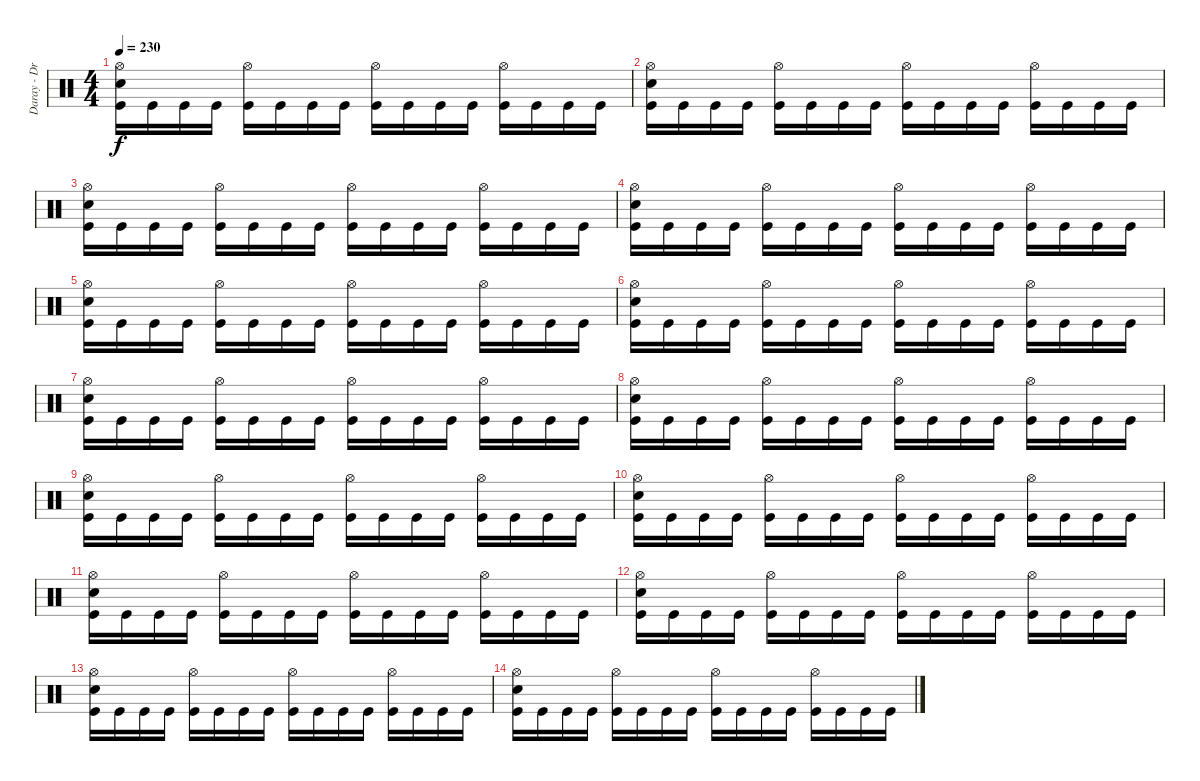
\track ("Daray - Drums" "Daray - Dr") {instrument percussion}
\staff {score}
\articulation defaults
\ts (4 4)
\tempo 230
\clef neutral
\ks c
("Hi-Hat (open)" "Electric Snare (hit)" "Kick (hit)").16{dy f} "Kick (hit)".16 "Kick (hit)".16 "Kick (hit)".16 ("Hi-Hat (open)" "Kick (hit)").16 "Kick (hit)".16 "Kick (hit)".16 "Kick (hit)".16 ("Hi-Hat (open)" "Kick (hit)").16 "Kick (hit)".16 "Kick (hit)".16 "Kick (hit)".16 ("Hi-Hat (open)" "Kick (hit)").16 "Kick (hit)".16 "Kick (hit)".16 "Kick (hit)".16 |
("Hi-Hat (open)" "Electric Snare (hit)" "Kick (hit)").16 "Kick (hit)".16 "Kick (hit)".16 "Kick (hit)".16 ("Hi-Hat (open)" "Kick (hit)").16 "Kick (hit)".16 "Kick (hit)".16 "Kick (hit)".16 ("Hi-Hat (open)" "Kick (hit)").16 "Kick (hit)".16 "Kick (hit)".16 "Kick (hit)".16 ("Hi-Hat (open)" "Kick (hit)").16 "Kick (hit)".16 "Kick (hit)".16 "Kick (hit)".16 |
("Hi-Hat (open)" "Electric Snare (hit)" "Kick (hit)").16 "Kick (hit)".16 "Kick (hit)".16 "Kick (hit)".16 ("Hi-Hat (open)" "Kick (hit)").16 "Kick (hit)".16 "Kick (hit)".16 "Kick (hit)".16 ("Hi-Hat (open)" "Kick (hit)").16 "Kick (hit)".16 "Kick (hit)".16 "Kick (hit)".16 ("Hi-Hat (open)" "Kick (hit)").16 "Kick (hit)".16 "Kick (hit)".16 "Kick (hit)".16 |
("Hi-Hat (open)" "Electric Snare (hit)" "Kick (hit)").16 "Kick (hit)".16 "Kick (hit)".16 "Kick (hit)".16 ("Hi-Hat (open)" "Kick (hit)").16 "Kick (hit)".16 "Kick (hit)".16 "Kick (hit)".16 ("Hi-Hat (open)" "Kick (hit)").16 "Kick (hit)".16 "Kick (hit)".16 "Kick (hit)".16 ("Hi-Hat (open)" "Kick (hit)").16 "Kick (hit)".16 "Kick (hit)".16 "Kick (hit)".16 |
("Hi-Hat (open)" "Electric Snare (hit)" "Kick (hit)").16 "Kick (hit)".16 "Kick (hit)".16 "Kick (hit)".16 ("Hi-Hat (open)" "Kick (hit)").16 "Kick (hit)".16 "Kick (hit)".16 "Kick (hit)".16 ("Hi-Hat (open)" "Kick (hit)").16 "Kick (hit)".16 "Kick (hit)".16 "Kick (hit)".16 ("Hi-Hat (open)" "Kick (hit)").16 "Kick (hit)".16 "Kick (hit)".16 "Kick (hit)".16 |
("Hi-Hat (open)" "Electric Snare (hit)" "Kick (hit)").16 "Kick (hit)".16 "Kick (hit)".16 "Kick (hit)".16 ("Hi-Hat (open)" "Kick (hit)").16 "Kick (hit)".16 "Kick (hit)".16 "Kick (hit)".16 ("Hi-Hat (open)" "Kick (hit)").16 "Kick (hit)".16 "Kick (hit)".16 "Kick (hit)".16 ("Hi-Hat (open)" "Kick (hit)").16 "Kick (hit)".16 "Kick (hit)".16 "Kick (hit)".16 |
("Hi-Hat (open)" "Electric Snare (hit)" "Kick (hit)").16 "Kick (hit)".16 "Kick (hit)".16 "Kick (hit)".16 ("Hi-Hat (open)" "Kick (hit)").16 "Kick (hit)".16 "Kick (hit)".16 "Kick (hit)".16 ("Hi-Hat (open)" "Kick (hit)").16 "Kick (hit)".16 "Kick (hit)".16 "Kick (hit)".16 ("Hi-Hat (open)" "Kick (hit)").16 "Kick (hit)".16 "Kick (hit)".16 "Kick (hit)".16 |
("Hi-Hat (open)" "Electric Snare (hit)" "Kick (hit)").16 "Kick (hit)".16 "Kick (hit)".16 "Kick (hit)".16 ("Hi-Hat (open)" "Kick (hit)").16 "Kick (hit)".16 "Kick (hit)".16 "Kick (hit)".16 ("Hi-Hat (open)" "Kick (hit)").16 "Kick (hit)".16 "Kick (hit)".16 "Kick (hit)".16 ("Hi-Hat (open)" "Kick (hit)").16 "Kick (hit)".16 "Kick (hit)".16 "Kick (hit)".16 |
("Hi-Hat (open)" "Electric Snare (hit)" "Kick (hit)").16 "Kick (hit)".16 "Kick (hit)".16 "Kick (hit)".16 ("Hi-Hat (open)" "Kick (hit)").16 "Kick (hit)".16 "Kick (hit)".16 "Kick (hit)".16 ("Hi-Hat (open)" "Kick (hit)").16 "Kick (hit)".16 "Kick (hit)".16 "Kick (hit)".16 ("Hi-Hat (open)" "Kick (hit)").16 "Kick (hit)".16 "Kick (hit)".16 "Kick (hit)".16 |
("Hi-Hat (open)" "Electric Snare (hit)" "Kick (hit)").16 "Kick (hit)".16 "Kick (hit)".16 "Kick (hit)".16 ("Hi-Hat (open)" "Kick (hit)").16 "Kick (hit)".16 "Kick (hit)".16 "Kick (hit)".16 ("Hi-Hat (open)" "Kick (hit)").16 "Kick (hit)".16 "Kick (hit)".16 "Kick (hit)".16 ("Hi-Hat (open)" "Kick (hit)").16 "Kick (hit)".16 "Kick (hit)".16 "Kick (hit)".16 |
("Hi-Hat (open)" "Electric Snare (hit)" "Kick (hit)").16 "Kick (hit)".16 "Kick (hit)".16 "Kick (hit)".16 ("Hi-Hat (open)" "Kick (hit)").16 "Kick (hit)".16 "Kick (hit)".16 "Kick (hit)".16 ("Hi-Hat (open)" "Kick (hit)").16 "Kick (hit)".16 "Kick (hit)".16 "Kick (hit)".16 ("Hi-Hat (open)" "Kick (hit)").16 "Kick (hit)".16 "Kick (hit)".16 "Kick (hit)".16 |
("Hi-Hat (open)" "Electric Snare (hit)" "Kick (hit)").16 "Kick (hit)".16 "Kick (hit)".16 "Kick (hit)".16 ("Hi-Hat (open)" "Kick (hit)").16 "Kick (hit)".16 "Kick (hit)".16 "Kick (hit)".16 ("Hi-Hat (open)" "Kick (hit)").16 "Kick (hit)".16 "Kick (hit)".16 "Kick (hit)".16 ("Hi-Hat (open)" "Kick (hit)").16 "Kick (hit)".16 "Kick (hit)".16 "Kick (hit)".16 |
("Hi-Hat (open)" "Electric Snare (hit)" "Kick (hit)").16 "Kick (hit)".16 "Kick (hit)".16 "Kick (hit)".16 ("Hi-Hat (open)" "Kick (hit)").16 "Kick (hit)".16 "Kick (hit)".16 "Kick (hit)".16 ("Hi-Hat (open)" "Kick (hit)").16 "Kick (hit)".16 "Kick (hit)".16 "Kick (hit)".16 ("Hi-Hat (open)" "Kick (hit)").16 "Kick (hit)".16 "Kick (hit)".16 "Kick (hit)".16 |
("Hi-Hat (open)" "Electric Snare (hit)" "Kick (hit)").16 "Kick (hit)".16 "Kick (hit)".16 "Kick (hit)".16 ("Hi-Hat (open)" "Kick (hit)").16 "Kick (hit)".16 "Kick (hit)".16 "Kick (hit)".16 ("Hi-Hat (open)" "Kick (hit)").16 "Kick (hit)".16 "Kick (hit)".16 "Kick (hit)".16 ("Hi-Hat (open)" "Kick (hit)").16 "Kick (hit)".16 "Kick (hit)".16 "Kick (hit)".16
